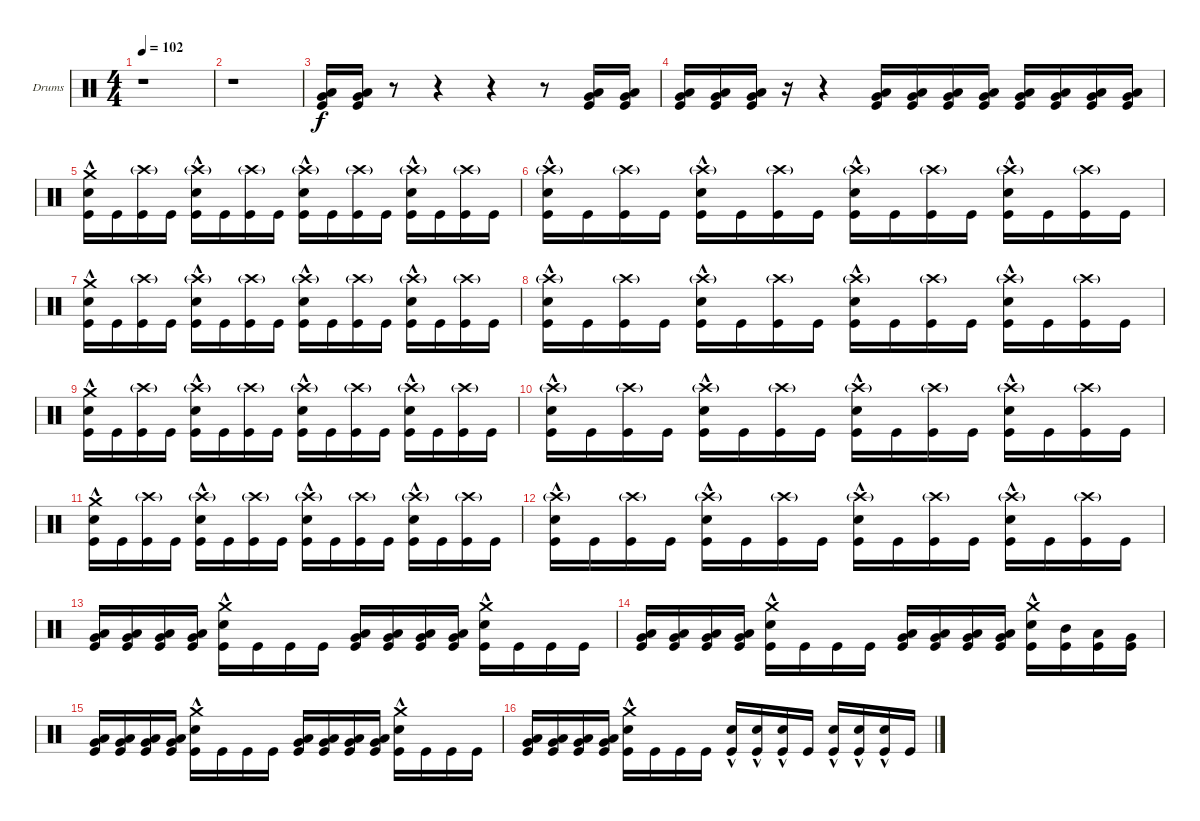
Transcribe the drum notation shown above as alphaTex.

\bracketExtendMode groupsimilarinstruments
\firstSystemTrackNameOrientation horizontal
\otherSystemsTrackNameOrientation horizontal
\track ("Drumkit" "Drums") {instrument percussion}
\staff {score}
\articulation defaults
\ts (4 4)
\tempo 102
\clef neutral
\scale
0.474178
\ks c
r.1{dy f} |
\scale
0.262911 r.1 |
\scale
0.262911 ("Kick (hit)" "Very Low Tom (hit)" "Low Tom (hit)").16 ("Kick (hit)" "Very Low Tom (hit)" "Low Tom (hit)").16 r.8 r.4 r.4 r.8 ("Kick (hit)" "Very Low Tom (hit)" "Low Tom (hit)").16 ("Kick (hit)" "Very Low Tom (hit)" "Low Tom (hit)").16 |
\scale
0.333333 ("Kick (hit)" "Very Low Tom (hit)" "Low Tom (hit)").16 ("Kick (hit)" "Very Low Tom (hit)" "Low Tom (hit)").16 ("Kick (hit)" "Very Low Tom (hit)" "Low Tom (hit)").16 r.16 r.4 ("Kick (hit)" "Very Low Tom (hit)" "Low Tom (hit)").16 ("Kick (hit)" "Very Low Tom (hit)" "Low Tom (hit)").16 ("Kick (hit)" "Very Low Tom (hit)" "Low Tom (hit)").16 ("Kick (hit)" "Very Low Tom (hit)" "Low Tom (hit)").16 ("Kick (hit)" "Very Low Tom (hit)" "Low Tom (hit)").16 ("Kick (hit)" "Very Low Tom (hit)" "Low Tom (hit)").16 ("Kick (hit)" "Very Low Tom (hit)" "Low Tom (hit)").16 ("Kick (hit)" "Very Low Tom (hit)" "Low Tom (hit)").16 |
\scale
0.333333 ("Kick (hit)" "Snare (hit) 2"{hac} "Crash medium (hit)").16 "Kick (hit)".16 ("Kick (hit)" "Crash high (hit)"{g}).16 "Kick (hit)".16 ("Kick (hit)" "Snare (hit) 2"{hac} "Crash high (hit)"{g}).16 "Kick (hit)".16 ("Kick (hit)" "Crash high (hit)"{g}).16 "Kick (hit)".16 ("Kick (hit)" "Snare (hit) 2"{hac} "Crash high (hit)"{g}).16 "Kick (hit)".16 ("Kick (hit)" "Crash high (hit)"{g}).16 "Kick (hit)".16 ("Kick (hit)" "Snare (hit) 2"{hac} "Crash high (hit)"{g}).16 "Kick (hit)".16 ("Kick (hit)" "Crash high (hit)"{g}).16 "Kick (hit)".16 |
\scale
0.333333 ("Kick (hit)" "Snare (hit) 2"{hac} "Crash high (hit)"{g}).16 "Kick (hit)".16 ("Kick (hit)" "Crash high (hit)"{g}).16 "Kick (hit)".16 ("Kick (hit)" "Snare (hit) 2"{hac} "Crash high (hit)"{g}).16 "Kick (hit)".16 ("Kick (hit)" "Crash high (hit)"{g}).16 "Kick (hit)".16 ("Kick (hit)" "Snare (hit) 2"{hac} "Crash high (hit)"{g}).16 "Kick (hit)".16 ("Kick (hit)" "Crash high (hit)"{g}).16 "Kick (hit)".16 ("Kick (hit)" "Snare (hit) 2"{hac} "Crash high (hit)"{g}).16 "Kick (hit)".16 ("Kick (hit)" "Crash high (hit)"{g}).16 "Kick (hit)".16 |
\scale
0.333333 ("Kick (hit)" "Snare (hit) 2"{hac} "Crash medium (hit)").16 "Kick (hit)".16 ("Kick (hit)" "Crash high (hit)"{g}).16 "Kick (hit)".16 ("Kick (hit)" "Snare (hit) 2"{hac} "Crash high (hit)"{g}).16 "Kick (hit)".16 ("Kick (hit)" "Crash high (hit)"{g}).16 "Kick (hit)".16 ("Kick (hit)" "Snare (hit) 2"{hac} "Crash high (hit)"{g}).16 "Kick (hit)".16 ("Kick (hit)" "Crash high (hit)"{g}).16 "Kick (hit)".16 ("Kick (hit)" "Snare (hit) 2"{hac} "Crash high (hit)"{g}).16 "Kick (hit)".16 ("Kick (hit)" "Crash high (hit)"{g}).16 "Kick (hit)".16 |
\scale
0.333333 ("Kick (hit)" "Snare (hit) 2"{hac} "Crash high (hit)"{g}).16 "Kick (hit)".16 ("Kick (hit)" "Crash high (hit)"{g}).16 "Kick (hit)".16 ("Kick (hit)" "Snare (hit) 2"{hac} "Crash high (hit)"{g}).16 "Kick (hit)".16 ("Kick (hit)" "Crash high (hit)"{g}).16 "Kick (hit)".16 ("Kick (hit)" "Snare (hit) 2"{hac} "Crash high (hit)"{g}).16 "Kick (hit)".16 ("Kick (hit)" "Crash high (hit)"{g}).16 "Kick (hit)".16 ("Kick (hit)" "Snare (hit) 2"{hac} "Crash high (hit)"{g}).16 "Kick (hit)".16 ("Kick (hit)" "Crash high (hit)"{g}).16 "Kick (hit)".16 |
\scale
0.333333 ("Kick (hit)" "Snare (hit) 2"{hac} "Crash medium (hit)").16 "Kick (hit)".16 ("Kick (hit)" "Crash high (hit)"{g}).16 "Kick (hit)".16 ("Kick (hit)" "Snare (hit) 2"{hac} "Crash high (hit)"{g}).16 "Kick (hit)".16 ("Kick (hit)" "Crash high (hit)"{g}).16 "Kick (hit)".16 ("Kick (hit)" "Snare (hit) 2"{hac} "Crash high (hit)"{g}).16 "Kick (hit)".16 ("Kick (hit)" "Crash high (hit)"{g}).16 "Kick (hit)".16 ("Kick (hit)" "Snare (hit) 2"{hac} "Crash high (hit)"{g}).16 "Kick (hit)".16 ("Kick (hit)" "Crash high (hit)"{g}).16 "Kick (hit)".16 |
\scale
0.333333 ("Kick (hit)" "Snare (hit) 2"{hac} "Crash high (hit)"{g}).16 "Kick (hit)".16 ("Kick (hit)" "Crash high (hit)"{g}).16 "Kick (hit)".16 ("Kick (hit)" "Snare (hit) 2"{hac} "Crash high (hit)"{g}).16 "Kick (hit)".16 ("Kick (hit)" "Crash high (hit)"{g}).16 "Kick (hit)".16 ("Kick (hit)" "Snare (hit) 2"{hac} "Crash high (hit)"{g}).16 "Kick (hit)".16 ("Kick (hit)" "Crash high (hit)"{g}).16 "Kick (hit)".16 ("Kick (hit)" "Snare (hit) 2"{hac} "Crash high (hit)"{g}).16 "Kick (hit)".16 ("Kick (hit)" "Crash high (hit)"{g}).16 "Kick (hit)".16 |
\scale
0.333333 ("Kick (hit)" "Snare (hit) 2"{hac} "Crash medium (hit)").16 "Kick (hit)".16 ("Kick (hit)" "Crash high (hit)"{g}).16 "Kick (hit)".16 ("Kick (hit)" "Snare (hit) 2"{hac} "Crash high (hit)"{g}).16 "Kick (hit)".16 ("Kick (hit)" "Crash high (hit)"{g}).16 "Kick (hit)".16 ("Kick (hit)" "Snare (hit) 2"{hac} "Crash high (hit)"{g}).16 "Kick (hit)".16 ("Kick (hit)" "Crash high (hit)"{g}).16 "Kick (hit)".16 ("Kick (hit)" "Snare (hit) 2"{hac} "Crash high (hit)"{g}).16 "Kick (hit)".16 ("Kick (hit)" "Crash high (hit)"{g}).16 "Kick (hit)".16 |
\scale
0.333333 ("Kick (hit)" "Snare (hit) 2"{hac} "Crash high (hit)"{g}).16 "Kick (hit)".16 ("Kick (hit)" "Crash high (hit)"{g}).16 "Kick (hit)".16 ("Kick (hit)" "Snare (hit) 2"{hac} "Crash high (hit)"{g}).16 "Kick (hit)".16 ("Kick (hit)" "Crash high (hit)"{g}).16 "Kick (hit)".16 ("Kick (hit)" "Snare (hit) 2"{hac} "Crash high (hit)"{g}).16 "Kick (hit)".16 ("Kick (hit)" "Crash high (hit)"{g}).16 "Kick (hit)".16 ("Kick (hit)" "Snare (hit) 2"{hac} "Crash high (hit)"{g}).16 "Kick (hit)".16 ("Kick (hit)" "Crash high (hit)"{g}).16 "Kick (hit)".16 |
\scale
0.333333 ("Kick (hit)" "Very Low Tom (hit)" "Low Tom (hit)").16 ("Kick (hit)" "Very Low Tom (hit)" "Low Tom (hit)").16 ("Kick (hit)" "Very Low Tom (hit)" "Low Tom (hit)").16 ("Kick (hit)" "Very Low Tom (hit)" "Low Tom (hit)").16 ("Kick (hit)" "Snare (hit) 2"{hac} "Crash medium (hit)").16 "Kick (hit)".16 "Kick (hit)".16 "Kick (hit)".16 ("Kick (hit)" "Very Low Tom (hit)" "Low Tom (hit)").16 ("Kick (hit)" "Very Low Tom (hit)" "Low Tom (hit)").16 ("Kick (hit)" "Very Low Tom (hit)" "Low Tom (hit)").16 ("Kick (hit)" "Very Low Tom (hit)" "Low Tom (hit)").16 ("Kick (hit)" "Snare (hit) 2"{hac} "Crash medium (hit)").16 "Kick (hit)".16 "Kick (hit)".16 "Kick (hit)".16 |
\scale
0.333333 ("Kick (hit)" "Very Low Tom (hit)" "Low Tom (hit)").16 ("Kick (hit)" "Very Low Tom (hit)" "Low Tom (hit)").16 ("Kick (hit)" "Very Low Tom (hit)" "Low Tom (hit)").16 ("Kick (hit)" "Very Low Tom (hit)" "Low Tom (hit)").16 ("Kick (hit)" "Snare (hit) 2"{hac} "Crash medium (hit)").16 "Kick (hit)".16 "Kick (hit)".16 "Kick (hit)".16 ("Kick (hit)" "Very Low Tom (hit)" "Low Tom (hit)").16 ("Kick (hit)" "Very Low Tom (hit)" "Low Tom (hit)").16 ("Kick (hit)" "Very Low Tom (hit)" "Low Tom (hit)").16 ("Kick (hit)" "Very Low Tom (hit)" "Low Tom (hit)").16 ("Kick (hit)" "Snare (hit) 2"{hac} "Crash medium (hit)").16 ("Kick (hit)" "Mid Tom (hit)").16 ("Kick (hit)" "Low Tom (hit)").16 ("Kick (hit)" "Very Low Tom (hit)").16 |
\scale
0.333333 ("Kick (hit)" "Very Low Tom (hit)" "Low Tom (hit)").16 ("Kick (hit)" "Very Low Tom (hit)" "Low Tom (hit)").16 ("Kick (hit)" "Very Low Tom (hit)" "Low Tom (hit)").16 ("Kick (hit)" "Very Low Tom (hit)" "Low Tom (hit)").16 ("Kick (hit)" "Snare (hit) 2"{hac} "Crash medium (hit)").16 "Kick (hit)".16 "Kick (hit)".16 "Kick (hit)".16 ("Kick (hit)" "Very Low Tom (hit)" "Low Tom (hit)").16 ("Kick (hit)" "Very Low Tom (hit)" "Low Tom (hit)").16 ("Kick (hit)" "Very Low Tom (hit)" "Low Tom (hit)").16 ("Kick (hit)" "Very Low Tom (hit)" "Low Tom (hit)").16 ("Kick (hit)" "Snare (hit) 2"{hac} "Crash medium (hit)").16 "Kick (hit)".16 "Kick (hit)".16 "Kick (hit)".16 |
\scale
0.333333 ("Kick (hit)" "Very Low Tom (hit)" "Low Tom (hit)").16 ("Kick (hit)" "Very Low Tom (hit)" "Low Tom (hit)").16 ("Kick (hit)" "Very Low Tom (hit)" "Low Tom (hit)").16 ("Kick (hit)" "Very Low Tom (hit)" "Low Tom (hit)").16 ("Kick (hit)" "Snare (hit) 2"{hac} "Crash medium (hit)").16 "Kick (hit)".16 "Kick (hit)".16 "Kick (hit)".16 ("Kick (hit)" "Snare (hit) 2"{hac}).16 ("Kick (hit)" "Snare (hit) 2"{hac}).16 ("Kick (hit)" "Snare (hit) 2"{hac}).16 "Kick (hit)".16 ("Kick (hit)" "Snare (hit) 2"{hac}).16 ("Kick (hit)" "Snare (hit) 2"{hac}).16 ("Kick (hit)" "Snare (hit) 2"{hac}).16 "Kick (hit)".16
